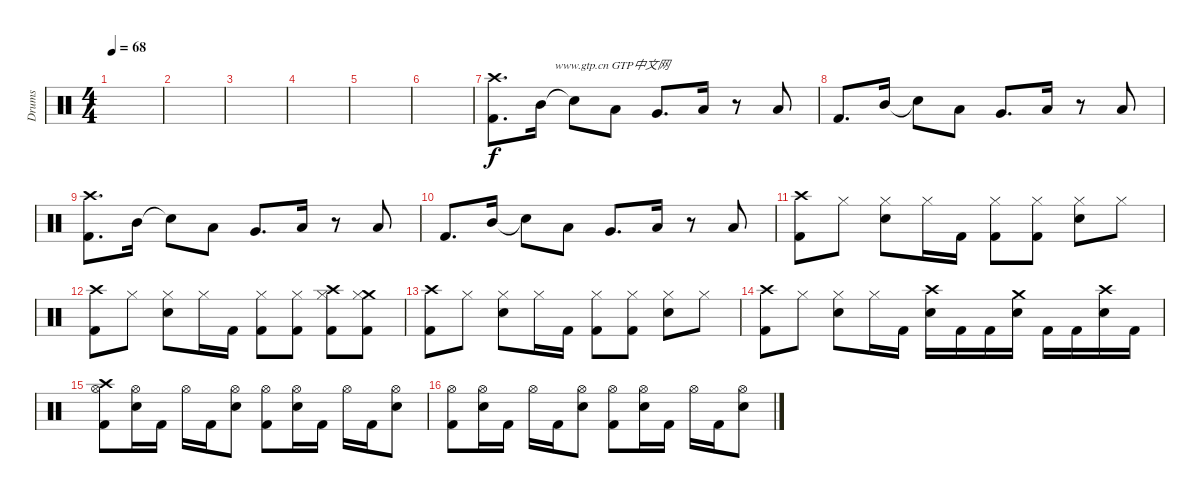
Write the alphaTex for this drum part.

\track ("Drums" "Drums") {instrument percussion}
\staff {score}
\articulation defaults
\ts (4 4)
\tempo 68
\clef neutral
\ks c
|
|
|
|
|
|
("Crash high (hit)" "Kick (hit) 2").8{d txt "                    www.gtp.cn GTP中文网"} "Mid Tom (hit)".16 "Snare (hit)"{t}.8 "Low Tom (hit)".8 "Very Low Tom (hit)".8{d} "Low Floor Tom (hit)".16 r.8 "Low Floor Tom (hit)".8 |
"Kick (hit) 2".8{d} "Mid Tom (hit)".16 "Snare (hit)"{t}.8 "Low Tom (hit)".8 "Very Low Tom (hit)".8{d} "Low Floor Tom (hit)".16 r.8 "Low Floor Tom (hit)".8 |
("Crash high (hit)" "Kick (hit) 2").8{d} "Mid Tom (hit)".16 "Snare (hit)"{t}.8 "Low Tom (hit)".8 "Very Low Tom (hit)".8{d} "Low Floor Tom (hit)".16 r.8 "Low Floor Tom (hit)".8 |
"Kick (hit) 2".8{d} "Mid Tom (hit)".16 "Snare (hit)"{t}.8 "Low Tom (hit)".8 "Very Low Tom (hit)".8{d} "Low Floor Tom (hit)".16 r.8 "Low Floor Tom (hit)".8 |
("Crash high (hit)" "Kick (hit) 2").8 "Hi-Hat (closed)".8 ("Hi-Hat (closed)" "Snare (hit) 2").8 "Hi-Hat (closed)".16 "Kick (hit) 2".16 ("Hi-Hat (closed)" "Kick (hit) 2").8 ("Hi-Hat (closed)" "Kick (hit) 2").8 ("Hi-Hat (closed)" "Snare (hit) 2").8 "Hi-Hat (closed)".8 |
("Crash high (hit)" "Kick (hit) 2").8 "Hi-Hat (closed)".8 ("Hi-Hat (closed)" "Snare (hit) 2").8 "Hi-Hat (closed)".16 "Kick (hit) 2".16 ("Hi-Hat (closed)" "Kick (hit) 2").8 ("Hi-Hat (closed)" "Kick (hit) 2").8 ("Crash high (hit)" "Hi-Hat (closed)" "Kick (hit) 2").8 ("Crash medium (hit)" "Hi-Hat (closed)" "Kick (hit) 2").8 |
("Crash high (hit)" "Kick (hit) 2").8 "Hi-Hat (closed)".8 ("Hi-Hat (closed)" "Snare (hit) 2").8 "Hi-Hat (closed)".16 "Kick (hit) 2".16 ("Hi-Hat (closed)" "Kick (hit) 2").8 ("Hi-Hat (closed)" "Kick (hit) 2").8 ("Hi-Hat (closed)" "Snare (hit) 2").8 "Hi-Hat (closed)".8 |
("Crash high (hit)" "Kick (hit) 2").8 "Hi-Hat (closed)".8 ("Hi-Hat (closed)" "Snare (hit) 2").8 "Hi-Hat (closed)".16 "Kick (hit) 2".16 ("Crash high (hit)" "Snare (hit) 2").16 "Kick (hit) 2".16 "Kick (hit) 2".16 ("Crash medium (hit)" "Snare (hit) 2").16 "Kick (hit) 2".16 "Kick (hit) 2".16 ("Crash high (hit)" "Snare (hit) 2").16 "Kick (hit) 2".16 |
("Crash high (hit)" "Hi-Hat (open)" "Kick (hit) 2").8 ("Hi-Hat (open)" "Snare (hit) 2").16 "Kick (hit) 2".16 "Hi-Hat (open)".16 "Kick (hit) 2".16 ("Hi-Hat (open)" "Snare (hit) 2").8 ("Hi-Hat (open)" "Kick (hit) 2").8 ("Hi-Hat (open)" "Snare (hit) 2").16 "Kick (hit) 2".16 "Hi-Hat (open)".16 "Kick (hit) 2".16 ("Hi-Hat (open)" "Snare (hit) 2").8 |
("Hi-Hat (open)" "Kick (hit) 2").8 ("Hi-Hat (open)" "Snare (hit) 2").16 "Kick (hit) 2".16 "Hi-Hat (open)".16 "Kick (hit) 2".16 ("Hi-Hat (open)" "Snare (hit) 2").8 ("Hi-Hat (open)" "Kick (hit) 2").8 ("Hi-Hat (open)" "Snare (hit) 2").16 "Kick (hit) 2".16 "Hi-Hat (open)".16 "Kick (hit) 2".16 ("Hi-Hat (open)" "Snare (hit) 2").8
